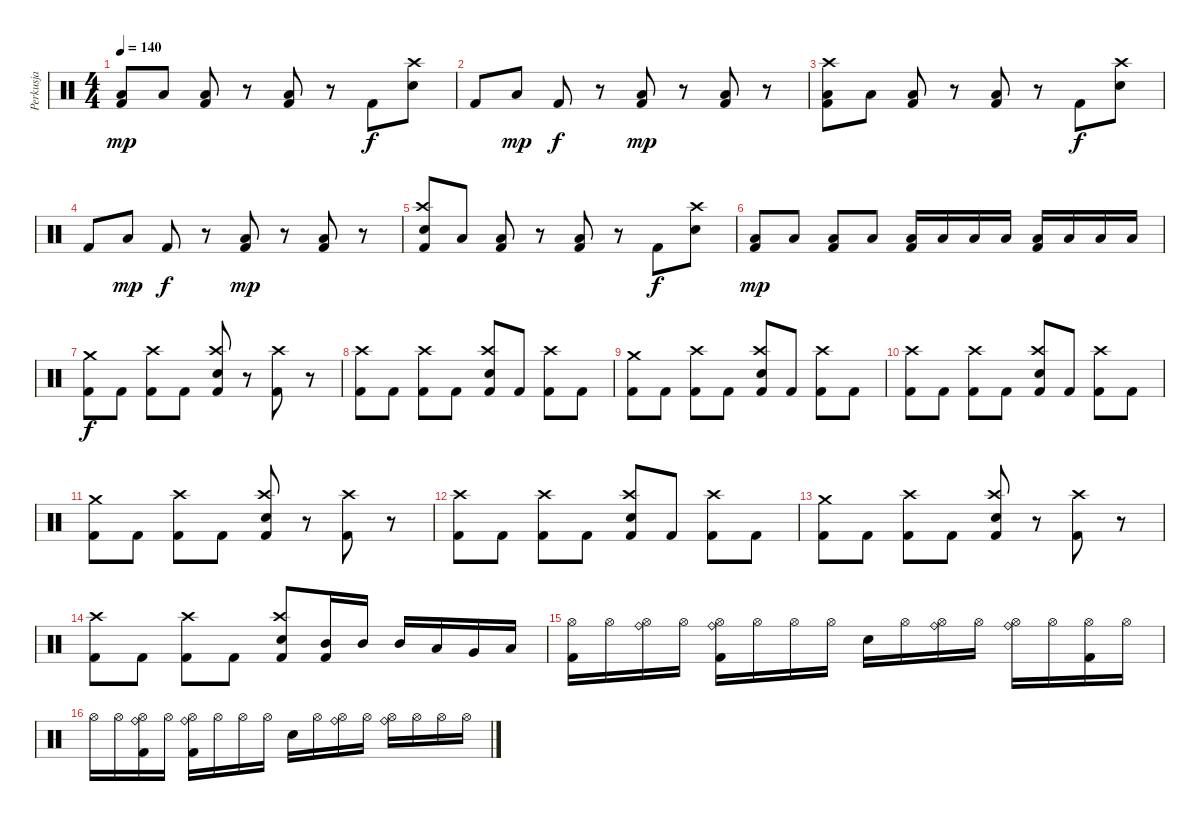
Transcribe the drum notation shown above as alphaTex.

\track ("Perkusja" "Perkusja") {instrument percussion}
\staff {score}
\articulation defaults
\ts (4 4)
\tempo 140
\clef neutral
\ks c
("Low Floor Tom (hit)" "Kick (hit) 2").8{dy mp} "Low Floor Tom (hit)".8 ("Low Floor Tom (hit)" "Kick (hit) 2").8 r.8 ("Low Floor Tom (hit)" "Kick (hit) 2").8 r.8 "Kick (hit) 2".8{dy f} ("Crash high (hit)" "Electric Snare (hit)").8 |
"Kick (hit) 2".8 "Low Floor Tom (hit)".8{dy mp} "Kick (hit) 2".8{dy f} r.8 ("Low Floor Tom (hit)" "Kick (hit) 2").8{dy mp} r.8 ("Low Floor Tom (hit)" "Kick (hit) 2").8 r.8 |
("Crash high (hit)" "Low Floor Tom (hit)" "Kick (hit) 2").8 "Low Floor Tom (hit)".8 ("Low Floor Tom (hit)" "Kick (hit) 2").8 r.8 ("Low Floor Tom (hit)" "Kick (hit) 2").8 r.8 "Kick (hit) 2".8{dy f} ("Crash high (hit)" "Electric Snare (hit)").8 |
"Kick (hit) 2".8 "Low Floor Tom (hit)".8{dy mp} "Kick (hit) 2".8{dy f} r.8 ("Low Floor Tom (hit)" "Kick (hit) 2").8{dy mp} r.8 ("Low Floor Tom (hit)" "Kick (hit) 2").8 r.8 |
("Crash high (hit)" "Electric Snare (hit)" "Kick (hit) 2").8 "Low Floor Tom (hit)".8 ("Low Floor Tom (hit)" "Kick (hit) 2").8 r.8 ("Low Floor Tom (hit)" "Kick (hit) 2").8 r.8 "Kick (hit) 2".8{dy f} ("Crash high (hit)" "Electric Snare (hit)").8 |
("Low Floor Tom (hit)" "Kick (hit) 2").8{dy mp} "Low Floor Tom (hit)".8 ("Low Floor Tom (hit)" "Kick (hit) 2").8 "Low Floor Tom (hit)".8 ("Low Floor Tom (hit)" "Kick (hit) 2").16 "Low Floor Tom (hit)".16 "Low Floor Tom (hit)".16 "Low Floor Tom (hit)".16 ("Low Floor Tom (hit)" "Kick (hit) 2").16 "Low Floor Tom (hit)".16 "Low Floor Tom (hit)".16 "Low Floor Tom (hit)".16 |
("Crash medium (hit)" "Kick (hit) 2").8{dy f} "Kick (hit) 2".8 ("Crash high (hit)" "Kick (hit) 2").8 "Kick (hit) 2".8 ("Crash high (hit)" "Electric Snare (hit)" "Kick (hit) 2").8 r.8 ("Crash high (hit)" "Kick (hit) 2").8 r.8 |
("Crash high (hit)" "Kick (hit) 2").8 "Kick (hit) 2".8 ("Crash high (hit)" "Kick (hit) 2").8 "Kick (hit) 2".8 ("Crash high (hit)" "Electric Snare (hit)" "Kick (hit) 2").8 "Kick (hit) 2".8 ("Crash high (hit)" "Kick (hit) 2").8 "Kick (hit) 2".8 |
("Crash medium (hit)" "Kick (hit) 2").8 "Kick (hit) 2".8 ("Crash high (hit)" "Kick (hit) 2").8 "Kick (hit) 2".8 ("Crash high (hit)" "Electric Snare (hit)" "Kick (hit) 2").8 "Kick (hit) 2".8 ("Crash high (hit)" "Kick (hit) 2").8 "Kick (hit) 2".8 |
("Crash high (hit)" "Kick (hit) 2").8 "Kick (hit) 2".8 ("Crash high (hit)" "Kick (hit) 2").8 "Kick (hit) 2".8 ("Crash high (hit)" "Electric Snare (hit)" "Kick (hit) 2").8 "Kick (hit) 2".8 ("Crash high (hit)" "Kick (hit) 2").8 "Kick (hit) 2".8 |
("Crash medium (hit)" "Kick (hit) 2").8 "Kick (hit) 2".8 ("Crash high (hit)" "Kick (hit) 2").8 "Kick (hit) 2".8 ("Crash high (hit)" "Electric Snare (hit)" "Kick (hit) 2").8 r.8 ("Crash high (hit)" "Kick (hit) 2").8 r.8 |
("Crash high (hit)" "Kick (hit) 2").8 "Kick (hit) 2".8 ("Crash high (hit)" "Kick (hit) 2").8 "Kick (hit) 2".8 ("Crash high (hit)" "Electric Snare (hit)" "Kick (hit) 2").8 "Kick (hit) 2".8 ("Crash high (hit)" "Kick (hit) 2").8 "Kick (hit) 2".8 |
("Crash medium (hit)" "Kick (hit) 2").8 "Kick (hit) 2".8 ("Crash high (hit)" "Kick (hit) 2").8 "Kick (hit) 2".8 ("Crash high (hit)" "Electric Snare (hit)" "Kick (hit) 2").8 r.8 ("Crash high (hit)" "Kick (hit) 2").8 r.8 |
("Crash high (hit)" "Kick (hit) 2").8 "Kick (hit) 2".8 ("Crash high (hit)" "Kick (hit) 2").8 "Kick (hit) 2".8 ("Crash high (hit)" "Electric Snare (hit)" "Kick (hit) 2").8 ("Mid Tom (hit)" "Kick (hit) 2").16 "Mid Tom (hit)".16 "Mid Tom (hit)".16 "Low Tom (hit)".16 "Very Low Tom (hit)".16 "Low Floor Tom (hit)".16 |
("Hi-Hat (open)" "Kick (hit) 2").16{txt " "} "Hi-Hat (open)".16 ("Hi-Hat (open)" "Ride (bell)").16 "Hi-Hat (open)".16 ("Hi-Hat (open)" "Ride (bell)" "Kick (hit) 2").16 "Hi-Hat (open)".16 "Hi-Hat (open)".16 "Hi-Hat (open)".16 "Electric Snare (hit)".16 "Hi-Hat (open)".16 ("Hi-Hat (open)" "Ride (bell)").16 "Hi-Hat (open)".16 ("Hi-Hat (open)" "Ride (bell)").16 "Hi-Hat (open)".16 ("Hi-Hat (open)" "Kick (hit) 2").16 "Hi-Hat (open)".16 |
"Hi-Hat (open)".16 "Hi-Hat (open)".16 ("Hi-Hat (open)" "Ride (bell)" "Kick (hit) 2").16 "Hi-Hat (open)".16 ("Hi-Hat (open)" "Ride (bell)" "Kick (hit) 2").16 "Hi-Hat (open)".16 "Hi-Hat (open)".16 "Hi-Hat (open)".16 "Electric Snare (hit)".16 "Hi-Hat (open)".16 ("Hi-Hat (open)" "Ride (bell)").16 "Hi-Hat (open)".16 ("Hi-Hat (open)" "Ride (bell)").16 "Hi-Hat (open)".16 "Hi-Hat (open)".16 "Hi-Hat (open)".16
